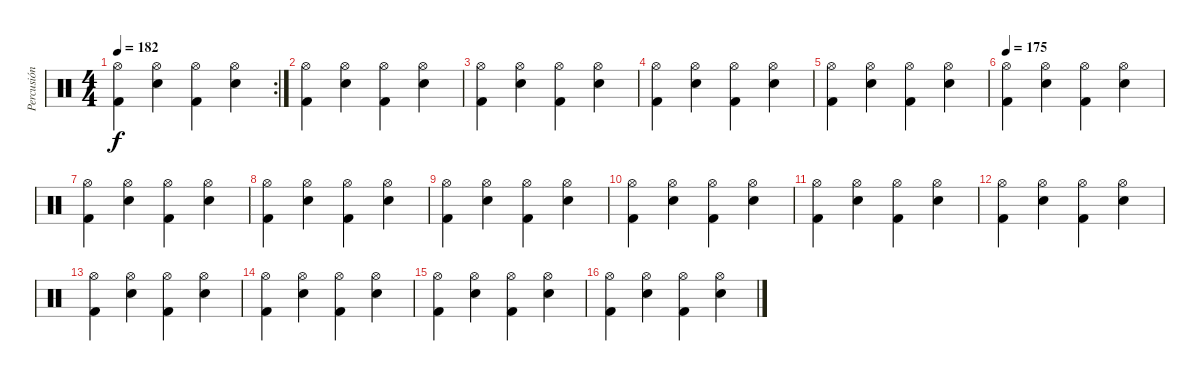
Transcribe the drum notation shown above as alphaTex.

\track ("Percusión" "Percusión") {instrument percussion}
\staff {score}
\articulation defaults
\rc 2
\ts (4 4)
\tempo 182
\clef neutral
\ks c
("Kick (hit) 2" "Hi-Hat (open)").4{dy f} ("Electric Snare (hit)" "Hi-Hat (open)").4 ("Kick (hit) 2" "Hi-Hat (open)").4 ("Electric Snare (hit)" "Hi-Hat (open)").4 |
("Kick (hit) 2" "Hi-Hat (open)").4 ("Electric Snare (hit)" "Hi-Hat (open)").4 ("Kick (hit) 2" "Hi-Hat (open)").4 ("Electric Snare (hit)" "Hi-Hat (open)").4 |
("Kick (hit) 2" "Hi-Hat (open)").4 ("Electric Snare (hit)" "Hi-Hat (open)").4 ("Kick (hit) 2" "Hi-Hat (open)").4 ("Electric Snare (hit)" "Hi-Hat (open)").4 |
("Kick (hit) 2" "Hi-Hat (open)").4 ("Electric Snare (hit)" "Hi-Hat (open)").4 ("Kick (hit) 2" "Hi-Hat (open)").4 ("Electric Snare (hit)" "Hi-Hat (open)").4 |
("Kick (hit) 2" "Hi-Hat (open)").4 ("Electric Snare (hit)" "Hi-Hat (open)").4 ("Kick (hit) 2" "Hi-Hat (open)").4 ("Electric Snare (hit)" "Hi-Hat (open)").4 |
\tempo 175
("Kick (hit) 2" "Hi-Hat (open)").4 ("Electric Snare (hit)" "Hi-Hat (open)").4 ("Kick (hit) 2" "Hi-Hat (open)").4 ("Electric Snare (hit)" "Hi-Hat (open)").4 |
("Kick (hit) 2" "Hi-Hat (open)").4 ("Electric Snare (hit)" "Hi-Hat (open)").4 ("Kick (hit) 2" "Hi-Hat (open)").4 ("Electric Snare (hit)" "Hi-Hat (open)").4 |
("Kick (hit) 2" "Hi-Hat (open)").4 ("Electric Snare (hit)" "Hi-Hat (open)").4 ("Kick (hit) 2" "Hi-Hat (open)").4 ("Electric Snare (hit)" "Hi-Hat (open)").4 |
("Kick (hit) 2" "Hi-Hat (open)").4 ("Electric Snare (hit)" "Hi-Hat (open)").4 ("Kick (hit) 2" "Hi-Hat (open)").4 ("Electric Snare (hit)" "Hi-Hat (open)").4 |
("Kick (hit) 2" "Hi-Hat (open)").4 ("Electric Snare (hit)" "Hi-Hat (open)").4 ("Kick (hit) 2" "Hi-Hat (open)").4 ("Electric Snare (hit)" "Hi-Hat (open)").4 |
("Kick (hit) 2" "Hi-Hat (open)").4 ("Electric Snare (hit)" "Hi-Hat (open)").4 ("Kick (hit) 2" "Hi-Hat (open)").4 ("Electric Snare (hit)" "Hi-Hat (open)").4 |
("Kick (hit) 2" "Hi-Hat (open)").4 ("Electric Snare (hit)" "Hi-Hat (open)").4 ("Kick (hit) 2" "Hi-Hat (open)").4 ("Electric Snare (hit)" "Hi-Hat (open)").4 |
("Kick (hit) 2" "Hi-Hat (open)").4 ("Electric Snare (hit)" "Hi-Hat (open)").4 ("Kick (hit) 2" "Hi-Hat (open)").4 ("Electric Snare (hit)" "Hi-Hat (open)").4 |
("Kick (hit) 2" "Hi-Hat (open)").4 ("Electric Snare (hit)" "Hi-Hat (open)").4 ("Kick (hit) 2" "Hi-Hat (open)").4 ("Electric Snare (hit)" "Hi-Hat (open)").4 |
("Kick (hit) 2" "Hi-Hat (open)").4 ("Electric Snare (hit)" "Hi-Hat (open)").4 ("Kick (hit) 2" "Hi-Hat (open)").4 ("Electric Snare (hit)" "Hi-Hat (open)").4 |
("Kick (hit) 2" "Hi-Hat (open)").4 ("Electric Snare (hit)" "Hi-Hat (open)").4 ("Kick (hit) 2" "Hi-Hat (open)").4 ("Electric Snare (hit)" "Hi-Hat (open)").4
